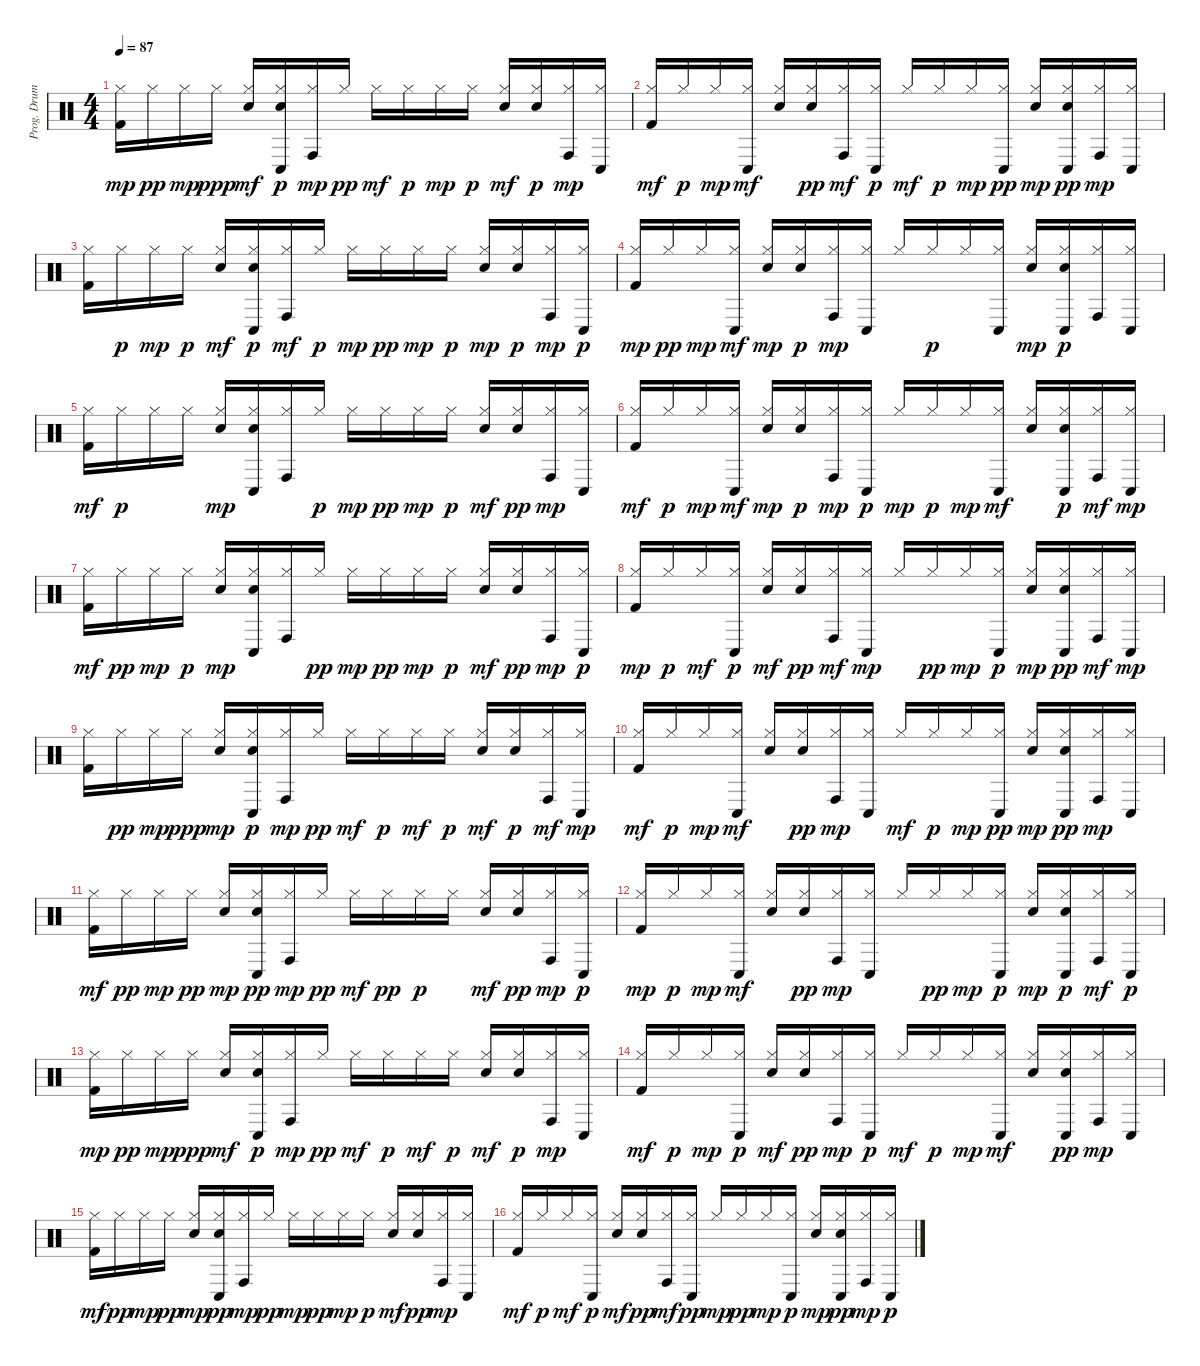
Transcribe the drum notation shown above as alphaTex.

\track ("Prog. Drums" "Prog. Drum") {instrument percussion}
\staff {score}
\articulation defaults
\ts (4 4)
\tempo 87
\clef neutral
\ks c
("Kick (hit) 2" "Hi-Hat (closed)").16{dy mp} "Hi-Hat (closed)".16{dy pp} "Hi-Hat (closed)".16{dy mp} "Hi-Hat (closed)".16{dy ppp} ("Hi-Hat (closed)" "Snare (hit) 2").16{dy mf} ("Conga low (hit)" "Snare (hit) 2" "Hi-Hat (closed)").16{dy p} ("Conga high (hit)" "Hi-Hat (closed)").16{dy mp} "Hi-Hat (closed)".16{dy pp} "Hi-Hat (closed)".16{dy mf} "Hi-Hat (closed)".16{dy p} "Hi-Hat (closed)".16{dy mp} "Hi-Hat (closed)".16{dy p} ("Snare (hit) 2" "Hi-Hat (closed)").16{dy mf} ("Snare (hit) 2" "Hi-Hat (closed)").16{dy p} ("Conga high (hit)" "Hi-Hat (closed)").16{dy mp} ("Hi-Hat (closed)" "Conga low (hit)").16 |
("Hi-Hat (closed)" "Kick (hit) 2").16{dy mf} "Hi-Hat (closed)".16{dy p} "Hi-Hat (closed)".16{dy mp} ("Hi-Hat (closed)" "Conga low (hit)").16{dy mf} ("Hi-Hat (closed)" "Snare (hit) 2").16 ("Hi-Hat (closed)" "Snare (hit) 2").16{dy pp} ("Hi-Hat (closed)" "Conga high (hit)").16{dy mf} ("Conga low (hit)" "Hi-Hat (closed)").16{dy p} "Hi-Hat (closed)".16{dy mf} "Hi-Hat (closed)".16{dy p} "Hi-Hat (closed)".16{dy mp} ("Conga low (hit)" "Hi-Hat (closed)").16{dy pp} ("Snare (hit) 2" "Hi-Hat (closed)").16{dy mp} ("Conga low (hit)" "Snare (hit) 2" "Hi-Hat (closed)").16{dy pp} ("Conga high (hit)" "Hi-Hat (closed)").16{dy mp} ("Hi-Hat (closed)" "Conga low (hit)").16 |
("Kick (hit) 2" "Hi-Hat (closed)").16 "Hi-Hat (closed)".16{dy p} "Hi-Hat (closed)".16{dy mp} "Hi-Hat (closed)".16{dy p} ("Hi-Hat (closed)" "Snare (hit) 2").16{dy mf} ("Snare (hit) 2" "Conga low (hit)" "Hi-Hat (closed)").16{dy p} ("Hi-Hat (closed)" "Conga high (hit)").16{dy mf} "Hi-Hat (closed)".16{dy p} "Hi-Hat (closed)".16{dy mp} "Hi-Hat (closed)".16{dy pp} "Hi-Hat (closed)".16{dy mp} "Hi-Hat (closed)".16{dy p} ("Hi-Hat (closed)" "Snare (hit) 2").16{dy mp} ("Snare (hit) 2" "Hi-Hat (closed)").16{dy p} ("Conga high (hit)" "Hi-Hat (closed)").16{dy mp} ("Conga low (hit)" "Hi-Hat (closed)").16{dy p} |
("Kick (hit) 2" "Hi-Hat (closed)").16{dy mp} "Hi-Hat (closed)".16{dy pp} "Hi-Hat (closed)".16{dy mp} ("Hi-Hat (closed)" "Conga low (hit)").16{dy mf} ("Hi-Hat (closed)" "Snare (hit) 2").16{dy mp} ("Snare (hit) 2" "Hi-Hat (closed)").16{dy p} ("Conga high (hit)" "Hi-Hat (closed)").16{dy mp} ("Hi-Hat (closed)" "Conga low (hit)").16 "Hi-Hat (closed)".16 "Hi-Hat (closed)".16{dy p} "Hi-Hat (closed)".16 ("Conga low (hit)" "Hi-Hat (closed)").16 ("Hi-Hat (closed)" "Snare (hit) 2").16{dy mp} ("Snare (hit) 2" "Conga low (hit)" "Hi-Hat (closed)").16{dy p} ("Conga high (hit)" "Hi-Hat (closed)").16 ("Conga low (hit)" "Hi-Hat (closed)").16 |
("Kick (hit) 2" "Hi-Hat (closed)").16{dy mf} "Hi-Hat (closed)".16{dy p} "Hi-Hat (closed)".16 "Hi-Hat (closed)".16 ("Snare (hit) 2" "Hi-Hat (closed)").16{dy mp} ("Snare (hit) 2" "Hi-Hat (closed)" "Conga low (hit)").16 ("Conga high (hit)" "Hi-Hat (closed)").16 "Hi-Hat (closed)".16{dy p} "Hi-Hat (closed)".16{dy mp} "Hi-Hat (closed)".16{dy pp} "Hi-Hat (closed)".16{dy mp} "Hi-Hat (closed)".16{dy p} ("Snare (hit) 2" "Hi-Hat (closed)").16{dy mf} ("Hi-Hat (closed)" "Snare (hit) 2").16{dy pp} ("Conga high (hit)" "Hi-Hat (closed)").16{dy mp} ("Hi-Hat (closed)" "Conga low (hit)").16 |
("Hi-Hat (closed)" "Kick (hit) 2").16{dy mf} "Hi-Hat (closed)".16{dy p} "Hi-Hat (closed)".16{dy mp} ("Hi-Hat (closed)" "Conga low (hit)").16{dy mf} ("Snare (hit) 2" "Hi-Hat (closed)").16{dy mp} ("Snare (hit) 2" "Hi-Hat (closed)").16{dy p} ("Conga high (hit)" "Hi-Hat (closed)").16{dy mp} ("Conga low (hit)" "Hi-Hat (closed)").16{dy p} "Hi-Hat (closed)".16{dy mp} "Hi-Hat (closed)".16{dy p} "Hi-Hat (closed)".16{dy mp} ("Hi-Hat (closed)" "Conga low (hit)").16{dy mf} ("Hi-Hat (closed)" "Snare (hit) 2").16 ("Snare (hit) 2" "Conga low (hit)" "Hi-Hat (closed)").16{dy p} ("Hi-Hat (closed)" "Conga high (hit)").16{dy mf} ("Hi-Hat (closed)" "Conga low (hit)").16{dy mp} |
("Hi-Hat (closed)" "Kick (hit) 2").16{dy mf} "Hi-Hat (closed)".16{dy pp} "Hi-Hat (closed)".16{dy mp} "Hi-Hat (closed)".16{dy p} ("Snare (hit) 2" "Hi-Hat (closed)").16{dy mp} ("Snare (hit) 2" "Hi-Hat (closed)" "Conga low (hit)").16 ("Conga high (hit)" "Hi-Hat (closed)").16 "Hi-Hat (closed)".16{dy pp} "Hi-Hat (closed)".16{dy mp} "Hi-Hat (closed)".16{dy pp} "Hi-Hat (closed)".16{dy mp} "Hi-Hat (closed)".16{dy p} ("Snare (hit) 2" "Hi-Hat (closed)").16{dy mf} ("Snare (hit) 2" "Hi-Hat (closed)").16{dy pp} ("Conga high (hit)" "Hi-Hat (closed)").16{dy mp} ("Conga low (hit)" "Hi-Hat (closed)").16{dy p} |
("Kick (hit) 2" "Hi-Hat (closed)").16{dy mp} "Hi-Hat (closed)".16{dy p} "Hi-Hat (closed)".16{dy mf} ("Conga low (hit)" "Hi-Hat (closed)").16{dy p} ("Hi-Hat (closed)" "Snare (hit) 2").16{dy mf} ("Snare (hit) 2" "Hi-Hat (closed)").16{dy pp} ("Conga high (hit)" "Hi-Hat (closed)").16{dy mf} ("Hi-Hat (closed)" "Conga low (hit)").16{dy mp} "Hi-Hat (closed)".16 "Hi-Hat (closed)".16{dy pp} "Hi-Hat (closed)".16{dy mp} ("Conga low (hit)" "Hi-Hat (closed)").16{dy p} ("Snare (hit) 2" "Hi-Hat (closed)").16{dy mp} ("Conga low (hit)" "Hi-Hat (closed)" "Snare (hit) 2").16{dy pp} ("Hi-Hat (closed)" "Conga high (hit)").16{dy mf} ("Hi-Hat (closed)" "Conga low (hit)").16{dy mp} |
("Kick (hit) 2" "Hi-Hat (closed)").16 "Hi-Hat (closed)".16{dy pp} "Hi-Hat (closed)".16{dy mp} "Hi-Hat (closed)".16{dy ppp} ("Snare (hit) 2" "Hi-Hat (closed)").16{dy mp} ("Snare (hit) 2" "Conga low (hit)" "Hi-Hat (closed)").16{dy p} ("Conga high (hit)" "Hi-Hat (closed)").16{dy mp} "Hi-Hat (closed)".16{dy pp} "Hi-Hat (closed)".16{dy mf} "Hi-Hat (closed)".16{dy p} "Hi-Hat (closed)".16{dy mf} "Hi-Hat (closed)".16{dy p} ("Hi-Hat (closed)" "Snare (hit) 2").16{dy mf} ("Snare (hit) 2" "Hi-Hat (closed)").16{dy p} ("Hi-Hat (closed)" "Conga high (hit)").16{dy mf} ("Hi-Hat (closed)" "Conga low (hit)").16{dy mp} |
("Kick (hit) 2" "Hi-Hat (closed)").16{dy mf} "Hi-Hat (closed)".16{dy p} "Hi-Hat (closed)".16{dy mp} ("Hi-Hat (closed)" "Conga low (hit)").16{dy mf} ("Hi-Hat (closed)" "Snare (hit) 2").16 ("Snare (hit) 2" "Hi-Hat (closed)").16{dy pp} ("Conga high (hit)" "Hi-Hat (closed)").16{dy mp} ("Hi-Hat (closed)" "Conga low (hit)").16 "Hi-Hat (closed)".16{dy mf} "Hi-Hat (closed)".16{dy p} "Hi-Hat (closed)".16{dy mp} ("Conga low (hit)" "Hi-Hat (closed)").16{dy pp} ("Snare (hit) 2" "Hi-Hat (closed)").16{dy mp} ("Snare (hit) 2" "Conga low (hit)" "Hi-Hat (closed)").16{dy pp} ("Conga high (hit)" "Hi-Hat (closed)").16{dy mp} ("Hi-Hat (closed)" "Conga low (hit)").16 |
("Hi-Hat (closed)" "Kick (hit) 2").16{dy mf} "Hi-Hat (closed)".16{dy pp} "Hi-Hat (closed)".16{dy mp} "Hi-Hat (closed)".16{dy pp} ("Snare (hit) 2" "Hi-Hat (closed)").16{dy mp} ("Snare (hit) 2" "Conga low (hit)" "Hi-Hat (closed)").16{dy pp} ("Conga high (hit)" "Hi-Hat (closed)").16{dy mp} "Hi-Hat (closed)".16{dy pp} "Hi-Hat (closed)".16{dy mf} "Hi-Hat (closed)".16{dy pp} "Hi-Hat (closed)".16{dy p} "Hi-Hat (closed)".16 ("Hi-Hat (closed)" "Snare (hit) 2").16{dy mf} ("Hi-Hat (closed)" "Snare (hit) 2").16{dy pp} ("Conga high (hit)" "Hi-Hat (closed)").16{dy mp} ("Conga low (hit)" "Hi-Hat (closed)").16{dy p} |
("Kick (hit) 2" "Hi-Hat (closed)").16{dy mp} "Hi-Hat (closed)".16{dy p} "Hi-Hat (closed)".16{dy mp} ("Hi-Hat (closed)" "Conga low (hit)").16{dy mf} ("Hi-Hat (closed)" "Snare (hit) 2").16 ("Snare (hit) 2" "Hi-Hat (closed)").16{dy pp} ("Conga high (hit)" "Hi-Hat (closed)").16{dy mp} ("Hi-Hat (closed)" "Conga low (hit)").16 "Hi-Hat (closed)".16 "Hi-Hat (closed)".16{dy pp} "Hi-Hat (closed)".16{dy mp} ("Conga low (hit)" "Hi-Hat (closed)").16{dy p} ("Snare (hit) 2" "Hi-Hat (closed)").16{dy mp} ("Snare (hit) 2" "Conga low (hit)" "Hi-Hat (closed)").16{dy p} ("Conga high (hit)" "Hi-Hat (closed)").16{dy mf} ("Conga low (hit)" "Hi-Hat (closed)").16{dy p} |
("Kick (hit) 2" "Hi-Hat (closed)").16{dy mp} "Hi-Hat (closed)".16{dy pp} "Hi-Hat (closed)".16{dy mp} "Hi-Hat (closed)".16{dy ppp} ("Hi-Hat (closed)" "Snare (hit) 2").16{dy mf} ("Conga low (hit)" "Snare (hit) 2" "Hi-Hat (closed)").16{dy p} ("Conga high (hit)" "Hi-Hat (closed)").16{dy mp} "Hi-Hat (closed)".16{dy pp} "Hi-Hat (closed)".16{dy mf} "Hi-Hat (closed)".16{dy p} "Hi-Hat (closed)".16{dy mf} "Hi-Hat (closed)".16{dy p} ("Snare (hit) 2" "Hi-Hat (closed)").16{dy mf} ("Snare (hit) 2" "Hi-Hat (closed)").16{dy p} ("Conga high (hit)" "Hi-Hat (closed)").16{dy mp} ("Hi-Hat (closed)" "Conga low (hit)").16 |
("Kick (hit) 2" "Hi-Hat (closed)").16{dy mf} "Hi-Hat (closed)".16{dy p} "Hi-Hat (closed)".16{dy mp} ("Conga low (hit)" "Hi-Hat (closed)").16{dy p} ("Snare (hit) 2" "Hi-Hat (closed)").16{dy mf} ("Snare (hit) 2" "Hi-Hat (closed)").16{dy pp} ("Conga high (hit)" "Hi-Hat (closed)").16{dy mp} ("Conga low (hit)" "Hi-Hat (closed)").16{dy p} "Hi-Hat (closed)".16{dy mf} "Hi-Hat (closed)".16{dy p} "Hi-Hat (closed)".16{dy mp} ("Hi-Hat (closed)" "Conga low (hit)").16{dy mf} ("Hi-Hat (closed)" "Snare (hit) 2").16 ("Conga low (hit)" "Hi-Hat (closed)" "Snare (hit) 2").16{dy pp} ("Conga high (hit)" "Hi-Hat (closed)").16{dy mp} ("Hi-Hat (closed)" "Conga low (hit)").16 |
("Hi-Hat (closed)" "Kick (hit) 2").16{dy mf} "Hi-Hat (closed)".16{dy pp} "Hi-Hat (closed)".16{dy mp} "Hi-Hat (closed)".16{dy pp} ("Snare (hit) 2" "Hi-Hat (closed)").16{dy mp} ("Conga low (hit)" "Snare (hit) 2" "Hi-Hat (closed)").16{dy pp} ("Conga high (hit)" "Hi-Hat (closed)").16{dy mp} "Hi-Hat (closed)".16{dy pp} "Hi-Hat (closed)".16{dy mp} "Hi-Hat (closed)".16{dy pp} "Hi-Hat (closed)".16{dy mp} "Hi-Hat (closed)".16{dy p} ("Snare (hit) 2" "Hi-Hat (closed)").16{dy mf} ("Snare (hit) 2" "Hi-Hat (closed)").16{dy pp} ("Conga high (hit)" "Hi-Hat (closed)").16{dy mp} ("Hi-Hat (closed)" "Conga low (hit)").16 |
("Hi-Hat (closed)" "Kick (hit) 2").16{dy mf} "Hi-Hat (closed)".16{dy p} "Hi-Hat (closed)".16{dy mf} ("Conga low (hit)" "Hi-Hat (closed)").16{dy p} ("Snare (hit) 2" "Hi-Hat (closed)").16{dy mf} ("Hi-Hat (closed)" "Snare (hit) 2").16{dy pp} ("Conga high (hit)" "Hi-Hat (closed)").16{dy mf} ("Conga low (hit)" "Hi-Hat (closed)").16{dy pp} "Hi-Hat (closed)".16{dy mp} "Hi-Hat (closed)".16{dy pp} "Hi-Hat (closed)".16{dy mp} ("Conga low (hit)" "Hi-Hat (closed)").16{dy p} ("Snare (hit) 2" "Hi-Hat (closed)").16{dy mp} ("Snare (hit) 2" "Conga low (hit)" "Hi-Hat (closed)").16{dy pp} ("Conga high (hit)" "Hi-Hat (closed)").16{dy mp} ("Conga low (hit)" "Hi-Hat (closed)").16{dy p}
